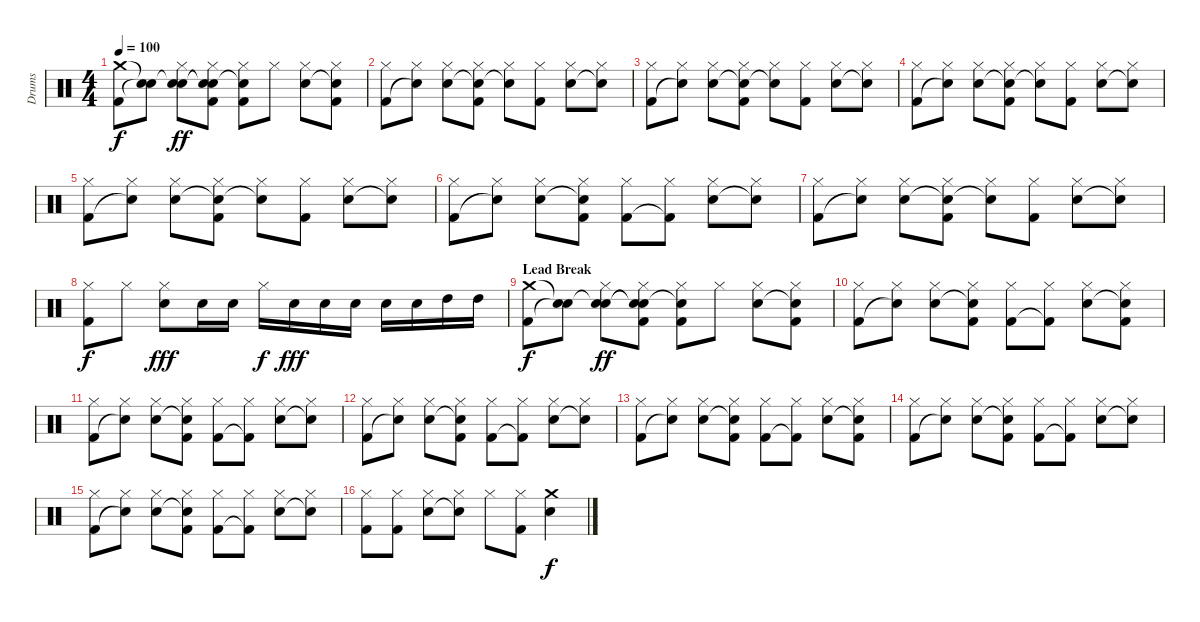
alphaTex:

\track ("Drums" "Drums") {instrument percussion}
\staff {score}
\articulation defaults
\ts (4 4)
\tempo 100
\clef neutral
\ks c
("Crash medium (hit)" "Kick (hit) 2").8{dy f} ("Snare (hit)"{t} "Snare (hit)"{t}).8 ("Snare (hit)"{t} "Hi-Hat (closed)" "Snare (hit) 2").8{dy ff} ("Snare (hit)"{t} "Hi-Hat (closed)" "Snare (hit)"{t} "Kick (hit) 2").8 ("Snare (hit)"{t} "Hi-Hat (closed)" "Kick (hit) 2").8 "Hi-Hat (closed)".8 ("Hi-Hat (closed)" "Snare (hit) 2").8 ("Hi-Hat (closed)" "Snare (hit)"{t} "Kick (hit) 2").8 |
("Hi-Hat (closed)" "Kick (hit) 2").8 ("Hi-Hat (closed)" "Snare (hit)"{t}).8 ("Hi-Hat (closed)" "Snare (hit) 2").8 ("Hi-Hat (closed)" "Snare (hit)"{t} "Kick (hit) 2").8 ("Hi-Hat (closed)" "Snare (hit)"{t}).8 ("Hi-Hat (closed)" "Kick (hit) 2").8 ("Hi-Hat (closed)" "Snare (hit) 2").8 ("Hi-Hat (closed)" "Snare (hit)"{t}).8 |
("Hi-Hat (closed)" "Kick (hit) 2").8 ("Hi-Hat (closed)" "Snare (hit)"{t}).8 ("Hi-Hat (closed)" "Snare (hit) 2").8 ("Hi-Hat (closed)" "Snare (hit)"{t} "Kick (hit) 2").8 ("Hi-Hat (closed)" "Snare (hit)"{t}).8 ("Hi-Hat (closed)" "Kick (hit) 2").8 ("Hi-Hat (closed)" "Snare (hit) 2").8 ("Hi-Hat (closed)" "Snare (hit)"{t}).8 |
("Hi-Hat (closed)" "Kick (hit) 2").8 ("Hi-Hat (closed)" "Snare (hit)"{t}).8 ("Hi-Hat (closed)" "Snare (hit) 2").8 ("Hi-Hat (closed)" "Snare (hit)"{t} "Kick (hit) 2").8 ("Hi-Hat (closed)" "Snare (hit)"{t}).8 ("Hi-Hat (closed)" "Kick (hit) 2").8 ("Hi-Hat (closed)" "Snare (hit) 2").8 ("Hi-Hat (closed)" "Snare (hit)"{t}).8 |
("Hi-Hat (closed)" "Kick (hit) 2").8 ("Hi-Hat (closed)" "Snare (hit)"{t}).8 ("Hi-Hat (closed)" "Snare (hit) 2").8 ("Hi-Hat (closed)" "Snare (hit)"{t} "Kick (hit) 2").8 ("Hi-Hat (closed)" "Snare (hit)"{t}).8 ("Hi-Hat (closed)" "Kick (hit) 2").8 ("Hi-Hat (closed)" "Snare (hit) 2").8 ("Hi-Hat (closed)" "Snare (hit)"{t}).8 |
("Hi-Hat (closed)" "Kick (hit) 2").8 ("Hi-Hat (closed)" "Snare (hit)"{t}).8 ("Hi-Hat (closed)" "Snare (hit) 2").8 ("Hi-Hat (closed)" "Snare (hit)"{t} "Kick (hit) 2").8 ("Hi-Hat (closed)" "Kick (hit) 2").8 ("Hi-Hat (closed)" "Kick (hit) 2"{t}).8 ("Hi-Hat (closed)" "Snare (hit) 2").8 ("Hi-Hat (closed)" "Snare (hit)"{t}).8 |
("Hi-Hat (closed)" "Kick (hit) 2").8 ("Hi-Hat (closed)" "Snare (hit)"{t}).8 ("Hi-Hat (closed)" "Snare (hit) 2").8 ("Hi-Hat (closed)" "Snare (hit)"{t} "Kick (hit) 2").8 ("Hi-Hat (closed)" "Snare (hit)"{t}).8 ("Hi-Hat (closed)" "Kick (hit) 2").8 ("Hi-Hat (closed)" "Snare (hit) 2").8 ("Hi-Hat (closed)" "Snare (hit)"{t}).8 |
("Hi-Hat (closed)" "Kick (hit) 2").8{dy f} "Hi-Hat (closed)".8 ("Hi-Hat (closed)" "Snare (hit) 2").8{dy fff} "Snare (hit) 2".16 "Snare (hit) 2".16 "Hi-Hat (closed)".16{dy f} "Snare (hit) 2".16{dy fff} "Snare (hit) 2".16 "Snare (hit) 2".16 "Snare (hit) 2".16 "Snare (hit) 2".16 "High Tom (hit)".16 "High Tom (hit)".16 |
\section ("" "Lead Break")
("Crash medium (hit)" "Kick (hit) 2").8{dy f} ("Snare (hit)"{t} "Snare (hit)"{t}).8 ("Snare (hit)"{t} "Hi-Hat (closed)" "Snare (hit) 2").8{dy ff} ("Snare (hit)"{t} "Hi-Hat (closed)" "Snare (hit)"{t} "Kick (hit) 2").8 ("Snare (hit)"{t} "Hi-Hat (closed)" "Kick (hit) 2").8 "Hi-Hat (closed)".8 ("Hi-Hat (closed)" "Snare (hit) 2").8 ("Hi-Hat (closed)" "Snare (hit)"{t} "Kick (hit) 2").8 |
("Hi-Hat (closed)" "Kick (hit) 2").8 ("Hi-Hat (closed)" "Snare (hit)"{t}).8 ("Hi-Hat (closed)" "Snare (hit) 2").8 ("Hi-Hat (closed)" "Snare (hit)"{t} "Kick (hit) 2").8 ("Hi-Hat (closed)" "Kick (hit) 2").8 ("Hi-Hat (closed)" "Kick (hit) 2"{t}).8 ("Hi-Hat (closed)" "Snare (hit) 2").8 ("Hi-Hat (closed)" "Snare (hit)"{t} "Kick (hit) 2").8 |
("Hi-Hat (closed)" "Kick (hit) 2").8 ("Hi-Hat (closed)" "Snare (hit)"{t}).8 ("Hi-Hat (closed)" "Snare (hit) 2").8 ("Hi-Hat (closed)" "Snare (hit)"{t} "Kick (hit) 2").8 ("Hi-Hat (closed)" "Kick (hit) 2").8 ("Hi-Hat (closed)" "Kick (hit) 2"{t}).8 ("Hi-Hat (closed)" "Snare (hit) 2").8 ("Hi-Hat (closed)" "Snare (hit)"{t}).8 |
("Hi-Hat (closed)" "Kick (hit) 2").8 ("Hi-Hat (closed)" "Snare (hit)"{t}).8 ("Hi-Hat (closed)" "Snare (hit) 2").8 ("Hi-Hat (closed)" "Snare (hit)"{t} "Kick (hit) 2").8 ("Hi-Hat (closed)" "Kick (hit) 2").8 ("Hi-Hat (closed)" "Kick (hit) 2"{t}).8 ("Hi-Hat (closed)" "Snare (hit) 2").8 ("Hi-Hat (closed)" "Snare (hit)"{t}).8 |
("Hi-Hat (closed)" "Kick (hit) 2").8 ("Hi-Hat (closed)" "Snare (hit)"{t}).8 ("Hi-Hat (closed)" "Snare (hit) 2").8 ("Hi-Hat (closed)" "Snare (hit)"{t} "Kick (hit) 2").8 ("Hi-Hat (closed)" "Kick (hit) 2").8 ("Hi-Hat (closed)" "Kick (hit) 2"{t}).8 ("Hi-Hat (closed)" "Snare (hit) 2").8 ("Hi-Hat (closed)" "Snare (hit)"{t} "Kick (hit) 2").8 |
("Hi-Hat (closed)" "Kick (hit) 2").8 ("Hi-Hat (closed)" "Snare (hit)"{t}).8 ("Hi-Hat (closed)" "Snare (hit) 2").8 ("Hi-Hat (closed)" "Snare (hit)"{t} "Kick (hit) 2").8 ("Hi-Hat (closed)" "Kick (hit) 2").8 ("Hi-Hat (closed)" "Kick (hit) 2"{t}).8 ("Hi-Hat (closed)" "Snare (hit) 2").8 ("Hi-Hat (closed)" "Snare (hit)"{t}).8 |
("Hi-Hat (closed)" "Kick (hit) 2").8 ("Hi-Hat (closed)" "Snare (hit)"{t}).8 ("Hi-Hat (closed)" "Snare (hit) 2").8 ("Hi-Hat (closed)" "Snare (hit)"{t} "Kick (hit) 2").8 ("Hi-Hat (closed)" "Kick (hit) 2").8 ("Hi-Hat (closed)" "Kick (hit) 2"{t}).8 ("Hi-Hat (closed)" "Snare (hit) 2").8 ("Hi-Hat (closed)" "Snare (hit)"{t}).8 |
("Hi-Hat (closed)" "Kick (hit) 2").8 ("Hi-Hat (closed)" "Kick (hit) 2").8 ("Hi-Hat (closed)" "Snare (hit) 2").8 ("Hi-Hat (closed)" "Snare (hit)"{t}).8 "Hi-Hat (closed)".8 ("Hi-Hat (closed)" "Kick (hit) 2").8 ("Crash medium (hit)" "Snare (hit) 2").4{dy f}
